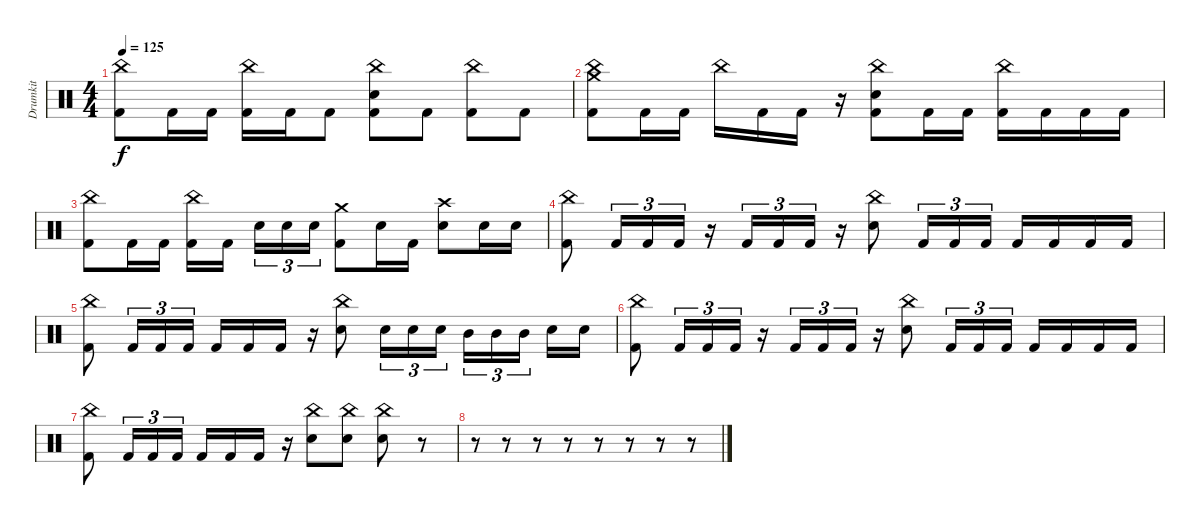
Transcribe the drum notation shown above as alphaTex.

\track ("Drumkit" "Drumkit") {instrument percussion}
\staff {score}
\articulation defaults
\ts (4 4)
\tempo 125
\clef neutral
\ks c
("China (hit)" "Kick (hit) 2").8{dy f} "Kick (hit) 2".16 "Kick (hit) 2".16 ("China (hit)" "Kick (hit) 2").16 "Kick (hit) 2".16 "Kick (hit) 2".8 ("China (hit)" "Electric Snare (hit)" "Kick (hit) 2").8 "Kick (hit) 2".8 ("China (hit)" "Kick (hit) 2").8 "Kick (hit) 2".8 |
("Crash medium (hit)" "China (hit)" "Kick (hit) 2").8 "Kick (hit) 2".16 "Kick (hit) 2".16 "China (hit)".16 "Kick (hit) 2".16 "Kick (hit) 2".16 r.16 ("China (hit)" "Electric Snare (hit)" "Kick (hit) 2").8 "Kick (hit) 2".16 "Kick (hit) 2".16 ("China (hit)" "Kick (hit) 2").16 "Kick (hit) 2".16 "Kick (hit) 2".16 "Kick (hit) 2".16 |
("China (hit)" "Kick (hit) 2").8 "Kick (hit) 2".16 "Kick (hit) 2".16 ("China (hit)" "Kick (hit) 2").16 "Kick (hit) 2".16{beam splitsecondary} "Electric Snare (hit)".16{tu (3 2)} "Electric Snare (hit)".16{tu (3 2)} "Electric Snare (hit)".16{tu (3 2)} ("Crash medium (hit)" "Kick (hit) 2").8 "Electric Snare (hit)".16 "Kick (hit) 2".16 ("Crash high (hit)" "Electric Snare (hit)").8 "Electric Snare (hit)".16 "Electric Snare (hit)".16 |
("China (hit)" "Kick (hit) 2").8 "Kick (hit) 2".16{tu (3 2)} "Kick (hit) 2".16{tu (3 2)} "Kick (hit) 2".16{tu (3 2)} r.16 "Kick (hit) 2".16{tu (3 2)} "Kick (hit) 2".16{tu (3 2)} "Kick (hit) 2".16{tu (3 2)} r.16 ("China (hit)" "Electric Snare (hit)").8 "Kick (hit) 2".16{tu (3 2)} "Kick (hit) 2".16{tu (3 2)} "Kick (hit) 2".16{tu (3 2)} "Kick (hit) 2".16 "Kick (hit) 2".16 "Kick (hit) 2".16 "Kick (hit) 2".16 |
("China (hit)" "Kick (hit) 2").8 "Kick (hit) 2".16{tu (3 2)} "Kick (hit) 2".16{tu (3 2)} "Kick (hit) 2".16{tu (3 2)} "Kick (hit) 2".16 "Kick (hit) 2".16 "Kick (hit) 2".16 r.16 ("China (hit)" "Electric Snare (hit)").8 "Electric Snare (hit)".16{tu (3 2)} "Electric Snare (hit)".16{tu (3 2)} "Electric Snare (hit)".16{tu (3 2)} "Mid Tom (hit)".16{tu (3 2)} "Mid Tom (hit)".16{tu (3 2)} "Mid Tom (hit)".16{tu (3 2) beam splitsecondary} "Electric Snare (hit)".16 "Electric Snare (hit)".16 |
("China (hit)" "Kick (hit) 2").8 "Kick (hit) 2".16{tu (3 2)} "Kick (hit) 2".16{tu (3 2)} "Kick (hit) 2".16{tu (3 2)} r.16 "Kick (hit) 2".16{tu (3 2)} "Kick (hit) 2".16{tu (3 2)} "Kick (hit) 2".16{tu (3 2)} r.16 ("China (hit)" "Electric Snare (hit)").8 "Kick (hit) 2".16{tu (3 2)} "Kick (hit) 2".16{tu (3 2)} "Kick (hit) 2".16{tu (3 2)} "Kick (hit) 2".16 "Kick (hit) 2".16 "Kick (hit) 2".16 "Kick (hit) 2".16 |
("China (hit)" "Kick (hit) 2").8 "Kick (hit) 2".16{tu (3 2)} "Kick (hit) 2".16{tu (3 2)} "Kick (hit) 2".16{tu (3 2)} "Kick (hit) 2".16 "Kick (hit) 2".16 "Kick (hit) 2".16 r.16 ("China (hit)" "Electric Snare (hit)").8 ("China (hit)" "Electric Snare (hit)").8 ("China (hit)" "Electric Snare (hit)").8 r.8 |
r.8 r.8 r.8 r.8 r.8 r.8 r.8 r.8
